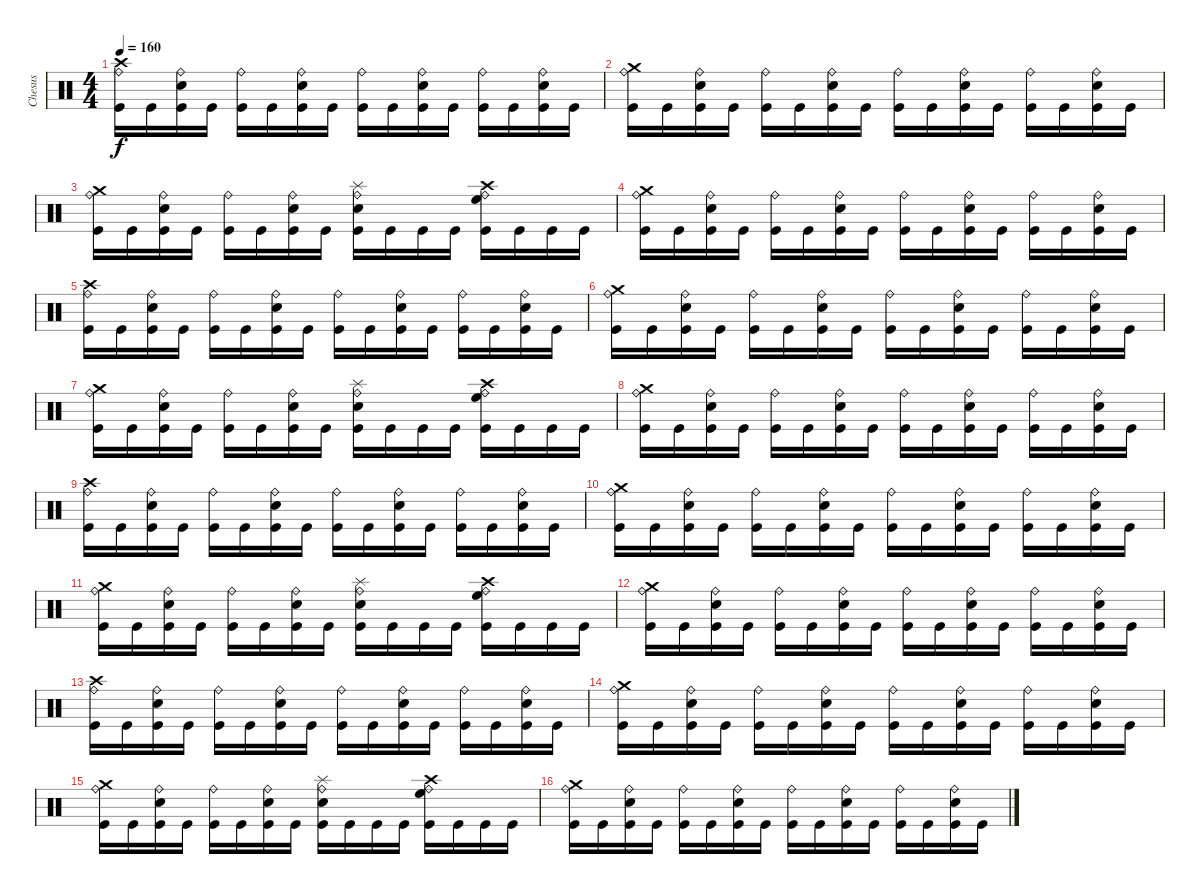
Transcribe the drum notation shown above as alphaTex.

\track ("Chesus" "Chesus") {instrument percussion}
\staff {score}
\articulation defaults
\ts (4 4)
\tempo 160
\clef neutral
\ks c
("Crash high (hit)" "Ride (bell)" "Kick (hit)").16{dy f} "Kick (hit)".16 ("Ride (bell)" "Snare (hit) 2" "Kick (hit)").16 "Kick (hit)".16 ("Ride (bell)" "Kick (hit)").16 "Kick (hit)".16 ("Ride (bell)" "Snare (hit) 2" "Kick (hit)").16 "Kick (hit)".16 ("Ride (bell)" "Kick (hit)").16 "Kick (hit)".16 ("Ride (bell)" "Snare (hit) 2" "Kick (hit)").16 "Kick (hit)".16 ("Ride (bell)" "Kick (hit)").16 "Kick (hit)".16 ("Ride (bell)" "Snare (hit) 2" "Kick (hit)").16 "Kick (hit)".16 |
("Crash medium (hit)" "Ride (bell)" "Kick (hit)").16 "Kick (hit)".16 ("Ride (bell)" "Snare (hit) 2" "Kick (hit)").16 "Kick (hit)".16 ("Ride (bell)" "Kick (hit)").16 "Kick (hit)".16 ("Ride (bell)" "Snare (hit) 2" "Kick (hit)").16 "Kick (hit)".16 ("Ride (bell)" "Kick (hit)").16 "Kick (hit)".16 ("Ride (bell)" "Snare (hit) 2" "Kick (hit)").16 "Kick (hit)".16 ("Ride (bell)" "Kick (hit)").16 "Kick (hit)".16 ("Ride (bell)" "Snare (hit) 2" "Kick (hit)").16 "Kick (hit)".16 |
("Crash medium (hit)" "Ride (bell)" "Kick (hit)").16 "Kick (hit)".16 ("Ride (bell)" "Snare (hit) 2" "Kick (hit)").16 "Kick (hit)".16 ("Ride (bell)" "Kick (hit)").16 "Kick (hit)".16 ("Ride (bell)" "Snare (hit) 2" "Kick (hit)").16 "Kick (hit)".16 ("Splash (hit)" "Ride (bell)" "Snare (hit) 2" "Kick (hit)").16 "Kick (hit)".16 "Kick (hit)".16 "Kick (hit)".16 ("Crash high (hit)" "Ride (bell)" "High Floor Tom (hit)" "Kick (hit)").16 "Kick (hit)".16 "Kick (hit)".16 "Kick (hit)".16 |
("Crash medium (hit)" "Ride (bell)" "Kick (hit)").16 "Kick (hit)".16 ("Ride (bell)" "Snare (hit) 2" "Kick (hit)").16 "Kick (hit)".16 ("Ride (bell)" "Kick (hit)").16 "Kick (hit)".16 ("Ride (bell)" "Snare (hit) 2" "Kick (hit)").16 "Kick (hit)".16 ("Ride (bell)" "Kick (hit)").16 "Kick (hit)".16 ("Ride (bell)" "Snare (hit) 2" "Kick (hit)").16 "Kick (hit)".16 ("Ride (bell)" "Kick (hit)").16 "Kick (hit)".16 ("Ride (bell)" "Snare (hit) 2" "Kick (hit)").16 "Kick (hit)".16 |
("Crash high (hit)" "Ride (bell)" "Kick (hit)").16 "Kick (hit)".16 ("Ride (bell)" "Snare (hit) 2" "Kick (hit)").16 "Kick (hit)".16 ("Ride (bell)" "Kick (hit)").16 "Kick (hit)".16 ("Ride (bell)" "Snare (hit) 2" "Kick (hit)").16 "Kick (hit)".16 ("Ride (bell)" "Kick (hit)").16 "Kick (hit)".16 ("Ride (bell)" "Snare (hit) 2" "Kick (hit)").16 "Kick (hit)".16 ("Ride (bell)" "Kick (hit)").16 "Kick (hit)".16 ("Ride (bell)" "Snare (hit) 2" "Kick (hit)").16 "Kick (hit)".16 |
("Crash medium (hit)" "Ride (bell)" "Kick (hit)").16 "Kick (hit)".16 ("Ride (bell)" "Snare (hit) 2" "Kick (hit)").16 "Kick (hit)".16 ("Ride (bell)" "Kick (hit)").16 "Kick (hit)".16 ("Ride (bell)" "Snare (hit) 2" "Kick (hit)").16 "Kick (hit)".16 ("Ride (bell)" "Kick (hit)").16 "Kick (hit)".16 ("Ride (bell)" "Snare (hit) 2" "Kick (hit)").16 "Kick (hit)".16 ("Ride (bell)" "Kick (hit)").16 "Kick (hit)".16 ("Ride (bell)" "Snare (hit) 2" "Kick (hit)").16 "Kick (hit)".16 |
("Crash medium (hit)" "Ride (bell)" "Kick (hit)").16 "Kick (hit)".16 ("Ride (bell)" "Snare (hit) 2" "Kick (hit)").16 "Kick (hit)".16 ("Ride (bell)" "Kick (hit)").16 "Kick (hit)".16 ("Ride (bell)" "Snare (hit) 2" "Kick (hit)").16 "Kick (hit)".16 ("Splash (hit)" "Ride (bell)" "Snare (hit) 2" "Kick (hit)").16 "Kick (hit)".16 "Kick (hit)".16 "Kick (hit)".16 ("Crash high (hit)" "Ride (bell)" "High Floor Tom (hit)" "Kick (hit)").16 "Kick (hit)".16 "Kick (hit)".16 "Kick (hit)".16 |
("Crash medium (hit)" "Ride (bell)" "Kick (hit)").16 "Kick (hit)".16 ("Ride (bell)" "Snare (hit) 2" "Kick (hit)").16 "Kick (hit)".16 ("Ride (bell)" "Kick (hit)").16 "Kick (hit)".16 ("Ride (bell)" "Snare (hit) 2" "Kick (hit)").16 "Kick (hit)".16 ("Ride (bell)" "Kick (hit)").16 "Kick (hit)".16 ("Ride (bell)" "Snare (hit) 2" "Kick (hit)").16 "Kick (hit)".16 ("Ride (bell)" "Kick (hit)").16 "Kick (hit)".16 ("Ride (bell)" "Snare (hit) 2" "Kick (hit)").16 "Kick (hit)".16 |
("Crash high (hit)" "Ride (bell)" "Kick (hit)").16 "Kick (hit)".16 ("Ride (bell)" "Snare (hit) 2" "Kick (hit)").16 "Kick (hit)".16 ("Ride (bell)" "Kick (hit)").16 "Kick (hit)".16 ("Ride (bell)" "Snare (hit) 2" "Kick (hit)").16 "Kick (hit)".16 ("Ride (bell)" "Kick (hit)").16 "Kick (hit)".16 ("Ride (bell)" "Snare (hit) 2" "Kick (hit)").16 "Kick (hit)".16 ("Ride (bell)" "Kick (hit)").16 "Kick (hit)".16 ("Ride (bell)" "Snare (hit) 2" "Kick (hit)").16 "Kick (hit)".16 |
("Crash medium (hit)" "Ride (bell)" "Kick (hit)").16 "Kick (hit)".16 ("Ride (bell)" "Snare (hit) 2" "Kick (hit)").16 "Kick (hit)".16 ("Ride (bell)" "Kick (hit)").16 "Kick (hit)".16 ("Ride (bell)" "Snare (hit) 2" "Kick (hit)").16 "Kick (hit)".16 ("Ride (bell)" "Kick (hit)").16 "Kick (hit)".16 ("Ride (bell)" "Snare (hit) 2" "Kick (hit)").16 "Kick (hit)".16 ("Ride (bell)" "Kick (hit)").16 "Kick (hit)".16 ("Ride (bell)" "Snare (hit) 2" "Kick (hit)").16 "Kick (hit)".16 |
("Crash medium (hit)" "Ride (bell)" "Kick (hit)").16 "Kick (hit)".16 ("Ride (bell)" "Snare (hit) 2" "Kick (hit)").16 "Kick (hit)".16 ("Ride (bell)" "Kick (hit)").16 "Kick (hit)".16 ("Ride (bell)" "Snare (hit) 2" "Kick (hit)").16 "Kick (hit)".16 ("Splash (hit)" "Ride (bell)" "Snare (hit) 2" "Kick (hit)").16 "Kick (hit)".16 "Kick (hit)".16 "Kick (hit)".16 ("Crash high (hit)" "Ride (bell)" "High Floor Tom (hit)" "Kick (hit)").16 "Kick (hit)".16 "Kick (hit)".16 "Kick (hit)".16 |
("Crash medium (hit)" "Ride (bell)" "Kick (hit)").16 "Kick (hit)".16 ("Ride (bell)" "Snare (hit) 2" "Kick (hit)").16 "Kick (hit)".16 ("Ride (bell)" "Kick (hit)").16 "Kick (hit)".16 ("Ride (bell)" "Snare (hit) 2" "Kick (hit)").16 "Kick (hit)".16 ("Ride (bell)" "Kick (hit)").16 "Kick (hit)".16 ("Ride (bell)" "Snare (hit) 2" "Kick (hit)").16 "Kick (hit)".16 ("Ride (bell)" "Kick (hit)").16 "Kick (hit)".16 ("Ride (bell)" "Snare (hit) 2" "Kick (hit)").16 "Kick (hit)".16 |
("Crash high (hit)" "Ride (bell)" "Kick (hit)").16 "Kick (hit)".16 ("Ride (bell)" "Snare (hit) 2" "Kick (hit)").16 "Kick (hit)".16 ("Ride (bell)" "Kick (hit)").16 "Kick (hit)".16 ("Ride (bell)" "Snare (hit) 2" "Kick (hit)").16 "Kick (hit)".16 ("Ride (bell)" "Kick (hit)").16 "Kick (hit)".16 ("Ride (bell)" "Snare (hit) 2" "Kick (hit)").16 "Kick (hit)".16 ("Ride (bell)" "Kick (hit)").16 "Kick (hit)".16 ("Ride (bell)" "Snare (hit) 2" "Kick (hit)").16 "Kick (hit)".16 |
("Crash medium (hit)" "Ride (bell)" "Kick (hit)").16 "Kick (hit)".16 ("Ride (bell)" "Snare (hit) 2" "Kick (hit)").16 "Kick (hit)".16 ("Ride (bell)" "Kick (hit)").16 "Kick (hit)".16 ("Ride (bell)" "Snare (hit) 2" "Kick (hit)").16 "Kick (hit)".16 ("Ride (bell)" "Kick (hit)").16 "Kick (hit)".16 ("Ride (bell)" "Snare (hit) 2" "Kick (hit)").16 "Kick (hit)".16 ("Ride (bell)" "Kick (hit)").16 "Kick (hit)".16 ("Ride (bell)" "Snare (hit) 2" "Kick (hit)").16 "Kick (hit)".16 |
("Crash medium (hit)" "Ride (bell)" "Kick (hit)").16 "Kick (hit)".16 ("Ride (bell)" "Snare (hit) 2" "Kick (hit)").16 "Kick (hit)".16 ("Ride (bell)" "Kick (hit)").16 "Kick (hit)".16 ("Ride (bell)" "Snare (hit) 2" "Kick (hit)").16 "Kick (hit)".16 ("Splash (hit)" "Ride (bell)" "Snare (hit) 2" "Kick (hit)").16 "Kick (hit)".16 "Kick (hit)".16 "Kick (hit)".16 ("Crash high (hit)" "Ride (bell)" "High Floor Tom (hit)" "Kick (hit)").16 "Kick (hit)".16 "Kick (hit)".16 "Kick (hit)".16 |
("Crash medium (hit)" "Ride (bell)" "Kick (hit)").16 "Kick (hit)".16 ("Ride (bell)" "Snare (hit) 2" "Kick (hit)").16 "Kick (hit)".16 ("Ride (bell)" "Kick (hit)").16 "Kick (hit)".16 ("Ride (bell)" "Snare (hit) 2" "Kick (hit)").16 "Kick (hit)".16 ("Ride (bell)" "Kick (hit)").16 "Kick (hit)".16 ("Ride (bell)" "Snare (hit) 2" "Kick (hit)").16 "Kick (hit)".16 ("Ride (bell)" "Kick (hit)").16 "Kick (hit)".16 ("Ride (bell)" "Snare (hit) 2" "Kick (hit)").16 "Kick (hit)".16
